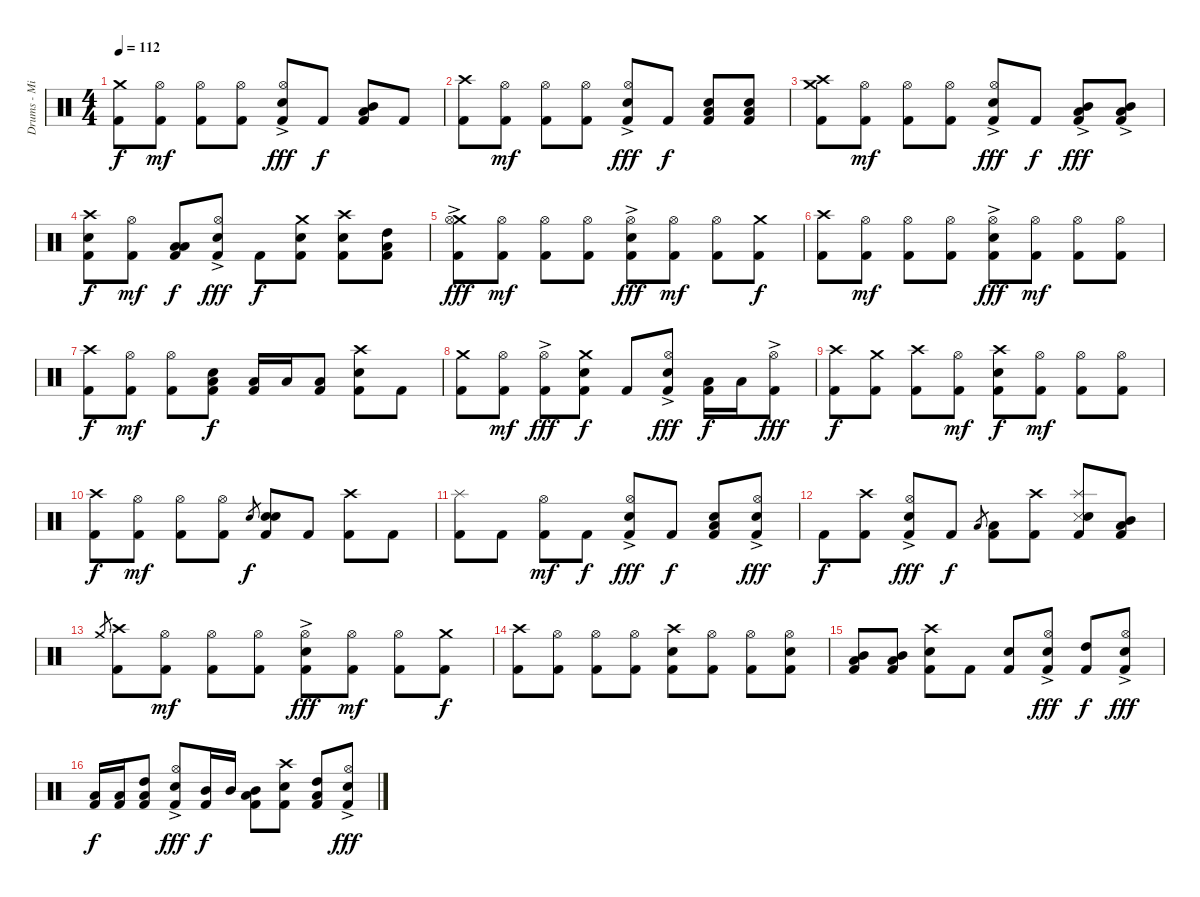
\track ("Drums - Mikko" "Drums - Mi") {instrument percussion}
\staff {score}
\articulation defaults
\ts (4 4)
\tempo 112
\clef neutral
\ks c
("Crash medium (hit)" "Kick (hit) 2").8{dy f} ("Hi-Hat (open)" "Kick (hit) 2").8{dy mf} ("Hi-Hat (open)" "Kick (hit) 2").8 ("Hi-Hat (open)" "Kick (hit) 2").8 ("Hi-Hat (open)"{ac} "Electric Snare (hit)" "Kick (hit) 2").8{dy fff} "Kick (hit) 2".8{dy f} ("Low Tom (hit)" "Mid Tom (hit)" "Kick (hit) 2").8 "Kick (hit) 2".8 |
("Crash high (hit)" "Kick (hit) 2").8 ("Hi-Hat (open)" "Kick (hit) 2").8{dy mf} ("Hi-Hat (open)" "Kick (hit) 2").8 ("Hi-Hat (open)" "Kick (hit) 2").8 ("Hi-Hat (open)"{ac} "Electric Snare (hit)" "Kick (hit) 2").8{dy fff} "Kick (hit) 2".8{dy f} ("Low Floor Tom (hit)" "Electric Snare (hit)" "Kick (hit) 2").8 ("Low Floor Tom (hit)" "Electric Snare (hit)" "Kick (hit) 2").8 |
("Crash high (hit)" "Crash medium (hit)" "Kick (hit) 2").8 ("Hi-Hat (open)" "Kick (hit) 2").8{dy mf} ("Hi-Hat (open)" "Kick (hit) 2").8 ("Hi-Hat (open)" "Kick (hit) 2").8 ("Hi-Hat (open)"{ac} "Electric Snare (hit)" "Kick (hit) 2").8{dy fff} "Kick (hit) 2".8{dy f} ("Low Tom (hit)"{ac} "Mid Tom (hit)" "Kick (hit) 2").8{dy fff} ("Low Tom (hit)"{ac} "Mid Tom (hit)" "Kick (hit) 2").8 |
("Crash high (hit)" "Electric Snare (hit)" "Kick (hit) 2").8{dy f} ("Hi-Hat (open)" "Kick (hit) 2").8{dy mf} ("Low Tom (hit)" "Low Floor Tom (hit)" "Kick (hit) 2").8{dy f} ("Hi-Hat (open)"{ac} "Electric Snare (hit)" "Kick (hit) 2").8{dy fff} "Kick (hit) 2".8{dy f} ("Crash medium (hit)" "Electric Snare (hit)" "Kick (hit) 2").8 ("Crash high (hit)" "Electric Snare (hit)" "Kick (hit) 2").8 ("Low Floor Tom (hit)" "High Tom (hit)" "Kick (hit) 2").8 |
("Crash medium (hit)" "Hi-Hat (open)"{ac} "Kick (hit) 2").8{dy fff} ("Hi-Hat (open)" "Kick (hit) 2").8{dy mf} ("Hi-Hat (open)" "Kick (hit) 2").8 ("Hi-Hat (open)" "Kick (hit) 2").8 ("Hi-Hat (open)"{ac} "Electric Snare (hit)" "Kick (hit) 2").8{dy fff} ("Hi-Hat (open)" "Kick (hit) 2").8{dy mf} ("Hi-Hat (open)" "Kick (hit) 2").8 ("Crash medium (hit)" "Kick (hit) 2").8{dy f} |
("Crash high (hit)" "Kick (hit) 2").8 ("Hi-Hat (open)" "Kick (hit) 2").8{dy mf} ("Hi-Hat (open)" "Kick (hit) 2").8 ("Hi-Hat (open)" "Kick (hit) 2").8 ("Hi-Hat (open)"{ac} "Electric Snare (hit)" "Kick (hit) 2").8{dy fff} ("Hi-Hat (open)" "Kick (hit) 2").8{dy mf} ("Hi-Hat (open)" "Kick (hit) 2").8 ("Hi-Hat (open)" "Kick (hit) 2").8 |
("Crash high (hit)" "Kick (hit) 2").8{dy f} ("Hi-Hat (open)" "Kick (hit) 2").8{dy mf} ("Hi-Hat (open)" "Kick (hit) 2").8 ("Low Tom (hit)" "Electric Snare (hit)" "Kick (hit) 2").8{dy f} ("Low Tom (hit)" "Kick (hit) 2").16 "Low Tom (hit)".16 ("Low Tom (hit)" "Kick (hit) 2").8 ("Crash high (hit)" "Electric Snare (hit)" "Kick (hit) 2").8 "Kick (hit) 2".8 |
("Crash medium (hit)" "Kick (hit) 2").8 ("Hi-Hat (open)" "Kick (hit) 2").8{dy mf} ("Hi-Hat (open)"{ac} "Kick (hit) 2").8{dy fff} ("Crash medium (hit)" "Electric Snare (hit)" "Kick (hit) 2").8{dy f} "Kick (hit) 2".8 ("Hi-Hat (open)"{ac} "Electric Snare (hit)" "Kick (hit) 2").8{dy fff} ("Low Floor Tom (hit)" "Kick (hit) 2").16{dy f} "Low Floor Tom (hit)".16 ("Hi-Hat (open)"{ac} "Kick (hit) 2").8{dy fff} |
("Crash high (hit)" "Kick (hit) 2").8{dy f} ("Crash medium (hit)" "Kick (hit) 2").8 ("Crash high (hit)" "Kick (hit) 2").8 ("Hi-Hat (open)" "Kick (hit) 2").8{dy mf} ("Crash high (hit)" "Electric Snare (hit)" "Kick (hit) 2").8{dy f} ("Hi-Hat (open)" "Kick (hit) 2").8{dy mf} ("Hi-Hat (open)" "Kick (hit) 2").8 ("Hi-Hat (open)" "Kick (hit) 2").8 |
("Crash high (hit)" "Kick (hit) 2").8{dy f} ("Hi-Hat (open)" "Kick (hit) 2").8{dy mf} ("Hi-Hat (open)" "Kick (hit) 2").8 ("Hi-Hat (open)" "Kick (hit) 2").8 "Electric Snare (hit)".8{gr dy f} ("Electric Snare (hit)" "Electric Snare (hit)" "Kick (hit) 2").8 "Kick (hit) 2".8 ("Crash high (hit)" "Kick (hit) 2").8 "Kick (hit) 2".8 |
("Splash (hit)" "Kick (hit) 2").8 "Kick (hit) 2".8 ("Hi-Hat (open)" "Kick (hit) 2").8{dy mf} "Kick (hit) 2".8{dy f} ("Hi-Hat (open)"{ac} "Electric Snare (hit)" "Kick (hit) 2").8{dy fff} "Kick (hit) 2".8{dy f} ("Low Tom (hit)" "Electric Snare (hit)" "Kick (hit) 2").8 ("Hi-Hat (open)"{ac} "Electric Snare (hit)" "Kick (hit) 2").8{dy fff} |
"Kick (hit) 2".8{dy f} ("Crash high (hit)" "Kick (hit) 2").8 ("Hi-Hat (open)"{ac} "Electric Snare (hit)" "Kick (hit) 2").8{dy fff} "Kick (hit) 2".8{dy f} "Low Tom (hit)".8{gr} ("Low Tom (hit)" "Kick (hit) 2").8 ("Crash high (hit)" "Kick (hit) 2").8 ("Splash (hit)" "Snare (side stick) 3" "Electric Snare (hit)" "Kick (hit) 2").8 ("Low Floor Tom (hit)" "Mid Tom (hit)" "Kick (hit) 2").8 |
"Crash medium (hit)".8{gr} ("Crash high (hit)" "Kick (hit) 2").8 ("Hi-Hat (open)" "Kick (hit) 2").8{dy mf} ("Hi-Hat (open)" "Kick (hit) 2").8 ("Hi-Hat (open)" "Kick (hit) 2").8 ("Hi-Hat (open)"{ac} "Electric Snare (hit)" "Kick (hit) 2").8{dy fff} ("Hi-Hat (open)" "Kick (hit) 2").8{dy mf} ("Hi-Hat (open)" "Kick (hit) 2").8 ("Crash medium (hit)" "Kick (hit) 2").8{dy f} |
("Crash high (hit)" "Kick (hit) 2").8 ("Hi-Hat (open)" "Kick (hit) 2").8 ("Hi-Hat (open)" "Kick (hit) 2").8 ("Hi-Hat (open)" "Kick (hit) 2").8 ("Crash high (hit)" "Electric Snare (hit)" "Kick (hit) 2").8 ("Hi-Hat (open)" "Kick (hit) 2").8 ("Hi-Hat (open)" "Kick (hit) 2").8 ("Hi-Hat (open)" "Electric Snare (hit)" "Kick (hit) 2").8 |
("Low Tom (hit)" "Mid Tom (hit)" "Kick (hit) 2").8 ("Low Tom (hit)" "Mid Tom (hit)" "Kick (hit) 2").8 ("Crash high (hit)" "Electric Snare (hit)" "Kick (hit) 2").8 "Kick (hit) 2".8 ("Electric Snare (hit)" "Kick (hit) 2").8 ("Hi-Hat (open)"{ac} "Electric Snare (hit)" "Kick (hit) 2").8{dy fff} ("High Tom (hit)" "Kick (hit) 2").8{dy f} ("Hi-Hat (open)"{ac} "Electric Snare (hit)" "Kick (hit) 2").8{dy fff} |
("Low Floor Tom (hit)" "Kick (hit) 2").16{dy f} ("Low Floor Tom (hit)" "Kick (hit) 2").16 ("High Tom (hit)" "Low Floor Tom (hit)" "Kick (hit) 2").8 ("Hi-Hat (open)"{ac} "Electric Snare (hit)" "Kick (hit) 2").8{dy fff} ("Mid Tom (hit)" "Kick (hit) 2").16{dy f} "Mid Tom (hit)".16 ("Mid Tom (hit)" "Low Tom (hit)" "Kick (hit) 2").8 ("Crash high (hit)" "Electric Snare (hit)" "Kick (hit) 2").8 ("High Tom (hit)" "Low Floor Tom (hit)" "Kick (hit) 2").8 ("Hi-Hat (open)"{ac} "Electric Snare (hit)" "Kick (hit) 2").8{dy fff}
